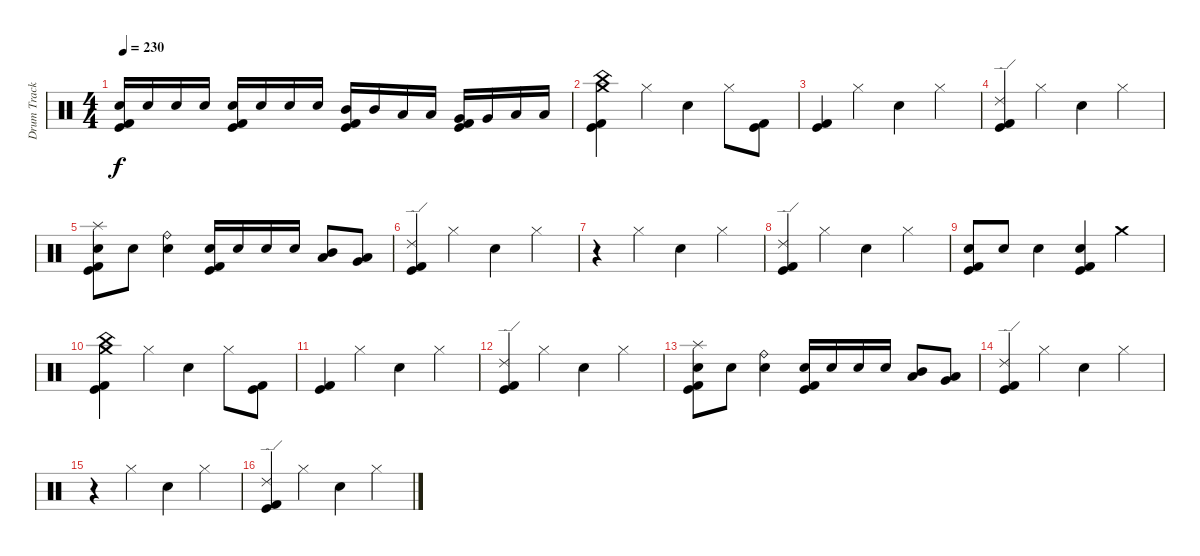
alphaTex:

\track ("Drum Track" "Drum Track") {instrument percussion}
\staff {score}
\articulation defaults
\ts (4 4)
\tempo 230
\clef neutral
\ks c
("Electric Snare (hit)" "Kick (hit) 2" "Kick (hit)").16{dy f} "Electric Snare (hit)".16 "Electric Snare (hit)".16 "Electric Snare (hit)".16 ("Electric Snare (hit)" "Kick (hit) 2" "Kick (hit)").16 "Electric Snare (hit)".16 "Electric Snare (hit)".16 "Electric Snare (hit)".16 ("Mid Tom (hit)" "Kick (hit) 2" "Kick (hit)").16 "Mid Tom (hit)".16 "Low Tom (hit)".16 "Low Tom (hit)".16 ("Very Low Tom (hit)" "Kick (hit) 2" "Kick (hit)").16 "Very Low Tom (hit)".16 "Low Floor Tom (hit)".16 "Low Floor Tom (hit)".16 |
("China (hit)" "Crash medium (hit)" "Kick (hit) 2" "Kick (hit)").4 "Hi-Hat (closed)".4 "Electric Snare (hit)".4 "Hi-Hat (closed)".8 ("Kick (hit) 2" "Kick (hit)").8 |
("Kick (hit) 2" "Kick (hit)").4 "Hi-Hat (closed)".4 "Electric Snare (hit)".4 "Hi-Hat (closed)".4 |
("Ride (edge) 2" "Kick (hit) 2" "Kick (hit)").4 "Hi-Hat (closed)".4 "Electric Snare (hit)".4 "Hi-Hat (closed)".4 |
("Splash (hit)" "Electric Snare (hit)" "Kick (hit) 2" "Kick (hit)").8 "Electric Snare (hit)".8 ("Ride (bell)" "Electric Snare (hit)").4 ("Electric Snare (hit)" "Kick (hit) 2" "Kick (hit)").16 "Electric Snare (hit)".16 "Electric Snare (hit)".16 "Electric Snare (hit)".16 ("Mid Tom (hit)" "Low Tom (hit)").8 ("Low Tom (hit)" "Very Low Tom (hit)").8 |
("Ride (edge) 2" "Kick (hit) 2" "Kick (hit)").4 "Hi-Hat (closed)".4 "Electric Snare (hit)".4 "Hi-Hat (closed)".4 |
r.4 "Hi-Hat (closed)".4 "Electric Snare (hit)".4 "Hi-Hat (closed)".4 |
("Ride (edge) 2" "Kick (hit) 2" "Kick (hit)").4 "Hi-Hat (closed)".4 "Electric Snare (hit)".4 "Hi-Hat (closed)".4 |
("Electric Snare (hit)" "Kick (hit) 2" "Kick (hit)").8 "Electric Snare (hit)".8 "Electric Snare (hit)".4 ("Electric Snare (hit)" "Kick (hit) 2" "Kick (hit)").4 "Crash medium (hit)".4 |
("China (hit)" "Crash medium (hit)" "Kick (hit) 2" "Kick (hit)").4 "Hi-Hat (closed)".4 "Electric Snare (hit)".4 "Hi-Hat (closed)".8 ("Kick (hit) 2" "Kick (hit)").8 |
("Kick (hit) 2" "Kick (hit)").4 "Hi-Hat (closed)".4 "Electric Snare (hit)".4 "Hi-Hat (closed)".4 |
("Ride (edge) 2" "Kick (hit) 2" "Kick (hit)").4 "Hi-Hat (closed)".4 "Electric Snare (hit)".4 "Hi-Hat (closed)".4 |
("Splash (hit)" "Electric Snare (hit)" "Kick (hit) 2" "Kick (hit)").8 "Electric Snare (hit)".8 ("Ride (bell)" "Electric Snare (hit)").4 ("Electric Snare (hit)" "Kick (hit) 2" "Kick (hit)").16 "Electric Snare (hit)".16 "Electric Snare (hit)".16 "Electric Snare (hit)".16 ("Mid Tom (hit)" "Low Tom (hit)").8 ("Low Tom (hit)" "Very Low Tom (hit)").8 |
("Ride (edge) 2" "Kick (hit) 2" "Kick (hit)").4 "Hi-Hat (closed)".4 "Electric Snare (hit)".4 "Hi-Hat (closed)".4 |
r.4 "Hi-Hat (closed)".4 "Electric Snare (hit)".4 "Hi-Hat (closed)".4 |
("Ride (edge) 2" "Kick (hit) 2" "Kick (hit)").4 "Hi-Hat (closed)".4 "Electric Snare (hit)".4 "Hi-Hat (closed)".4
